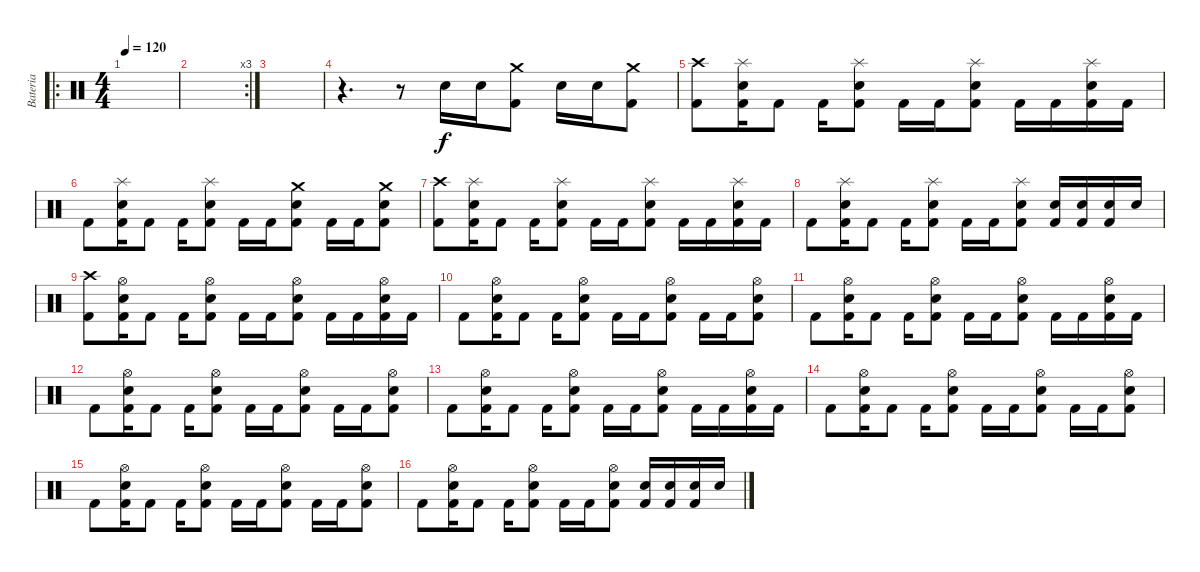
\track ("Bateria" "Bateria") {instrument percussion}
\staff {score}
\articulation defaults
\ro
\ts (4 4)
\tempo 120
\clef neutral
\ks c
|
\rc 3
|
|
r.4{d} r.8 "Electric Snare (hit)".16 "Electric Snare (hit)".16 ("Kick (hit) 2" "Crash medium (hit)").8 "Electric Snare (hit)".16 "Electric Snare (hit)".16 ("Kick (hit) 2" "Crash medium (hit)").8 |
("Kick (hit) 2" "Crash high (hit)").8 ("Kick (hit) 2" "Electric Snare (hit)" "Splash (hit)").16 "Kick (hit) 2".8 "Kick (hit) 2".16 ("Kick (hit) 2" "Electric Snare (hit)" "Splash (hit)").8 "Kick (hit) 2".16 "Kick (hit) 2".16 ("Kick (hit) 2" "Electric Snare (hit)" "Splash (hit)").8 "Kick (hit) 2".16 "Kick (hit) 2".16 ("Kick (hit) 2" "Electric Snare (hit)" "Splash (hit)").16 "Kick (hit) 2".16 |
"Kick (hit) 2".8 ("Kick (hit) 2" "Electric Snare (hit)" "Splash (hit)").16 "Kick (hit) 2".8 "Kick (hit) 2".16 ("Kick (hit) 2" "Electric Snare (hit)" "Splash (hit)").8 "Kick (hit) 2".16 "Kick (hit) 2".16 ("Kick (hit) 2" "Electric Snare (hit)" "Crash medium (hit)").8 "Kick (hit) 2".16 "Kick (hit) 2".16 ("Kick (hit) 2" "Electric Snare (hit)" "Crash medium (hit)").8 |
("Kick (hit) 2" "Crash high (hit)").8 ("Kick (hit) 2" "Electric Snare (hit)" "Splash (hit)").16 "Kick (hit) 2".8 "Kick (hit) 2".16 ("Kick (hit) 2" "Electric Snare (hit)" "Splash (hit)").8 "Kick (hit) 2".16 "Kick (hit) 2".16 ("Kick (hit) 2" "Electric Snare (hit)" "Splash (hit)").8 "Kick (hit) 2".16 "Kick (hit) 2".16 ("Kick (hit) 2" "Electric Snare (hit)" "Splash (hit)").16 "Kick (hit) 2".16 |
"Kick (hit) 2".8 ("Kick (hit) 2" "Electric Snare (hit)" "Splash (hit)").16 "Kick (hit) 2".8 "Kick (hit) 2".16 ("Kick (hit) 2" "Electric Snare (hit)" "Splash (hit)").8 "Kick (hit) 2".16 "Kick (hit) 2".16 ("Kick (hit) 2" "Electric Snare (hit)" "Splash (hit)").8 ("Kick (hit) 2" "Electric Snare (hit)").16 ("Kick (hit) 2" "Electric Snare (hit)").16 ("Kick (hit) 2" "Electric Snare (hit)").16 "Electric Snare (hit)".16 |
("Kick (hit) 2" "Crash high (hit)").8 ("Kick (hit) 2" "Electric Snare (hit)" "Hi-Hat (open)").16 "Kick (hit) 2".8 "Kick (hit) 2".16 ("Kick (hit) 2" "Electric Snare (hit)" "Hi-Hat (open)").8 "Kick (hit) 2".16 "Kick (hit) 2".16 ("Kick (hit) 2" "Electric Snare (hit)" "Hi-Hat (open)").8 "Kick (hit) 2".16 "Kick (hit) 2".16 ("Kick (hit) 2" "Electric Snare (hit)" "Hi-Hat (open)").16 "Kick (hit) 2".16 |
"Kick (hit) 2".8 ("Kick (hit) 2" "Electric Snare (hit)" "Hi-Hat (open)").16 "Kick (hit) 2".8 "Kick (hit) 2".16 ("Kick (hit) 2" "Electric Snare (hit)" "Hi-Hat (open)").8 "Kick (hit) 2".16 "Kick (hit) 2".16 ("Kick (hit) 2" "Electric Snare (hit)" "Hi-Hat (open)").8 "Kick (hit) 2".16 "Kick (hit) 2".16 ("Kick (hit) 2" "Electric Snare (hit)" "Hi-Hat (open)").8 |
"Kick (hit) 2".8 ("Kick (hit) 2" "Electric Snare (hit)" "Hi-Hat (open)").16 "Kick (hit) 2".8 "Kick (hit) 2".16 ("Kick (hit) 2" "Electric Snare (hit)" "Hi-Hat (open)").8 "Kick (hit) 2".16 "Kick (hit) 2".16 ("Kick (hit) 2" "Electric Snare (hit)" "Hi-Hat (open)").8 "Kick (hit) 2".16 "Kick (hit) 2".16 ("Kick (hit) 2" "Electric Snare (hit)" "Hi-Hat (open)").16 "Kick (hit) 2".16 |
"Kick (hit) 2".8 ("Kick (hit) 2" "Electric Snare (hit)" "Hi-Hat (open)").16 "Kick (hit) 2".8 "Kick (hit) 2".16 ("Kick (hit) 2" "Electric Snare (hit)" "Hi-Hat (open)").8 "Kick (hit) 2".16 "Kick (hit) 2".16 ("Kick (hit) 2" "Electric Snare (hit)" "Hi-Hat (open)").8 "Kick (hit) 2".16 "Kick (hit) 2".16 ("Kick (hit) 2" "Electric Snare (hit)" "Hi-Hat (open)").8 |
"Kick (hit) 2".8 ("Kick (hit) 2" "Electric Snare (hit)" "Hi-Hat (open)").16 "Kick (hit) 2".8 "Kick (hit) 2".16 ("Kick (hit) 2" "Electric Snare (hit)" "Hi-Hat (open)").8 "Kick (hit) 2".16 "Kick (hit) 2".16 ("Kick (hit) 2" "Electric Snare (hit)" "Hi-Hat (open)").8 "Kick (hit) 2".16 "Kick (hit) 2".16 ("Kick (hit) 2" "Electric Snare (hit)" "Hi-Hat (open)").16 "Kick (hit) 2".16 |
"Kick (hit) 2".8 ("Kick (hit) 2" "Electric Snare (hit)" "Hi-Hat (open)").16 "Kick (hit) 2".8 "Kick (hit) 2".16 ("Kick (hit) 2" "Electric Snare (hit)" "Hi-Hat (open)").8 "Kick (hit) 2".16 "Kick (hit) 2".16 ("Kick (hit) 2" "Electric Snare (hit)" "Hi-Hat (open)").8 "Kick (hit) 2".16 "Kick (hit) 2".16 ("Kick (hit) 2" "Electric Snare (hit)" "Hi-Hat (open)").8 |
"Kick (hit) 2".8 ("Kick (hit) 2" "Electric Snare (hit)" "Hi-Hat (open)").16 "Kick (hit) 2".8 "Kick (hit) 2".16 ("Kick (hit) 2" "Electric Snare (hit)" "Hi-Hat (open)").8 "Kick (hit) 2".16 "Kick (hit) 2".16 ("Kick (hit) 2" "Electric Snare (hit)" "Hi-Hat (open)").8 "Kick (hit) 2".16 "Kick (hit) 2".16 ("Kick (hit) 2" "Electric Snare (hit)" "Hi-Hat (open)").8 |
"Kick (hit) 2".8 ("Kick (hit) 2" "Electric Snare (hit)" "Hi-Hat (open)").16 "Kick (hit) 2".8 "Kick (hit) 2".16 ("Kick (hit) 2" "Electric Snare (hit)" "Hi-Hat (open)").8 "Kick (hit) 2".16 "Kick (hit) 2".16 ("Kick (hit) 2" "Electric Snare (hit)" "Hi-Hat (open)").8 ("Kick (hit) 2" "Electric Snare (hit)").16 ("Kick (hit) 2" "Electric Snare (hit)").16 ("Kick (hit) 2" "Electric Snare (hit)").16 "Electric Snare (hit)".16
